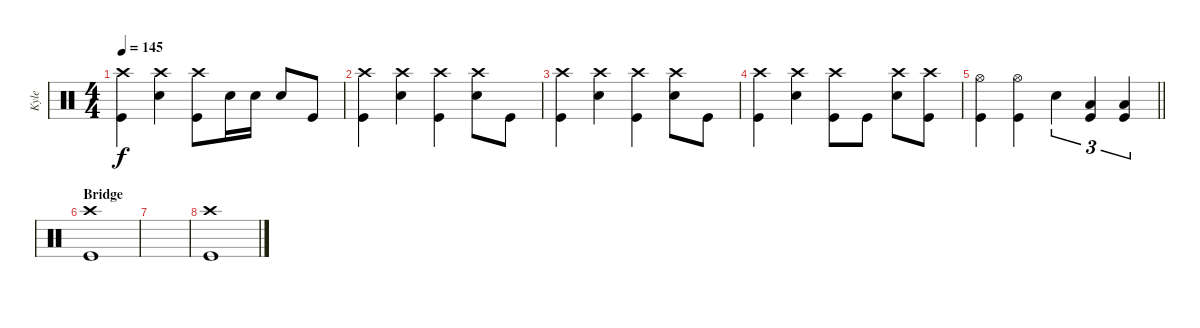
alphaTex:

\track ("Kyle" "Kyle") {instrument percussion}
\staff {score}
\articulation defaults
\ts (4 4)
\tempo 145
\clef neutral
\ks c
("Crash high (hit)" "Kick (hit)").4{dy f} ("Crash high (hit)" "Electric Snare (hit)").4 ("Crash high (hit)" "Kick (hit)").8 "Electric Snare (hit)".16 "Electric Snare (hit)".16 "Electric Snare (hit)".8 "Kick (hit)".8 |
("Crash high (hit)" "Kick (hit)").4 ("Crash high (hit)" "Electric Snare (hit)").4 ("Crash high (hit)" "Kick (hit)").4 ("Crash high (hit)" "Electric Snare (hit)").8 "Kick (hit)".8 |
("Crash high (hit)" "Kick (hit)").4 ("Crash high (hit)" "Electric Snare (hit)").4 ("Crash high (hit)" "Kick (hit)").4 ("Crash high (hit)" "Electric Snare (hit)").8 "Kick (hit)".8 |
("Crash high (hit)" "Kick (hit)").4 ("Crash high (hit)" "Electric Snare (hit)").4 ("Crash high (hit)" "Kick (hit)").8 "Kick (hit)".8 ("Crash high (hit)" "Electric Snare (hit)").8 ("Crash high (hit)" "Kick (hit)").8 |
\barLineRight lightlight
("Hi-Hat (open)" "Kick (hit)").4 ("Hi-Hat (open)" "Kick (hit)").4 "Electric Snare (hit)".4{tu (3 2)} ("Low Floor Tom (hit)" "Kick (hit)").4{tu (3 2)} ("Low Floor Tom (hit)" "Kick (hit)").4{tu (3 2)} |
\section ("" "Bridge")
("Crash high (hit)" "Kick (hit)").1 |
|
("Crash high (hit)" "Kick (hit)").1
